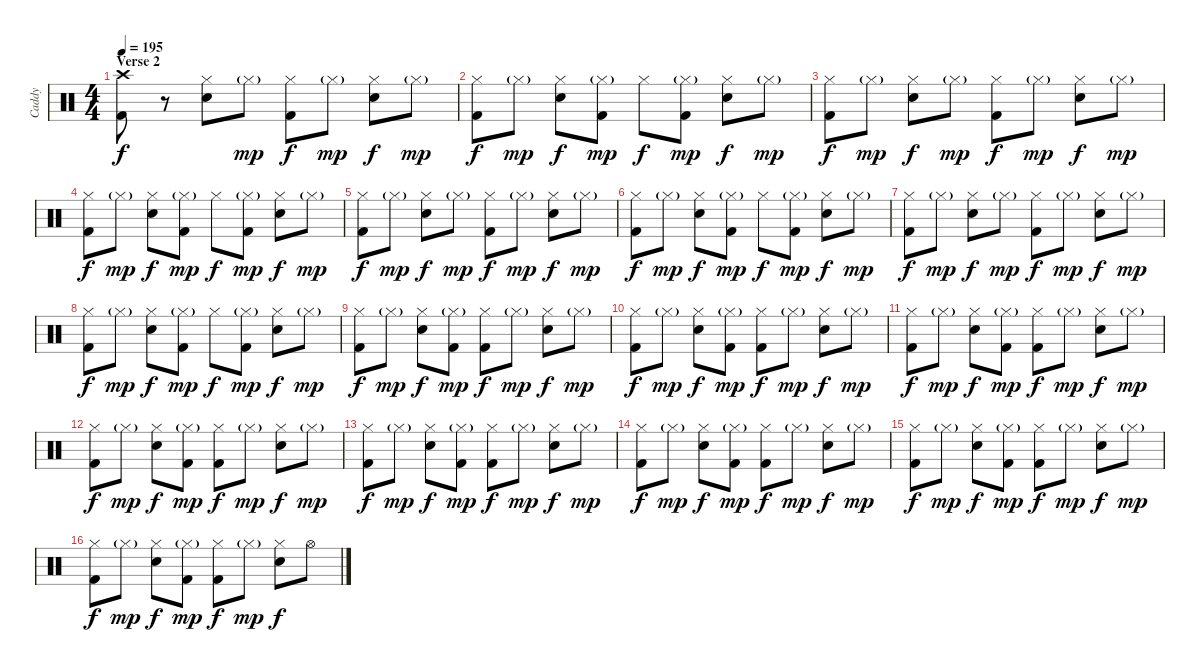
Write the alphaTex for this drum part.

\track ("Caddy" "Caddy") {instrument percussion}
\staff {score}
\articulation defaults
\ts (4 4)
\section ("" "Verse 2")
\tempo 195
\clef neutral
\ks c
("Crash high (hit)" "Kick (hit) 2").8{dy f} r.8 ("Hi-Hat (closed)" "Electric Snare (hit)").8 "Hi-Hat (closed)"{g}.8{dy mp} ("Hi-Hat (closed)" "Kick (hit) 2").8{dy f} "Hi-Hat (closed)"{g}.8{dy mp} ("Hi-Hat (closed)" "Electric Snare (hit)").8{dy f} "Hi-Hat (closed)"{g}.8{dy mp} |
("Hi-Hat (closed)" "Kick (hit) 2").8{dy f} "Hi-Hat (closed)"{g}.8{dy mp} ("Hi-Hat (closed)" "Electric Snare (hit)").8{dy f} ("Hi-Hat (closed)"{g} "Kick (hit) 2").8{dy mp} "Hi-Hat (closed)".8{dy f} ("Hi-Hat (closed)"{g} "Kick (hit) 2").8{dy mp} ("Hi-Hat (closed)" "Electric Snare (hit)").8{dy f} "Hi-Hat (closed)"{g}.8{dy mp} |
("Hi-Hat (closed)" "Kick (hit) 2").8{dy f} "Hi-Hat (closed)"{g}.8{dy mp} ("Hi-Hat (closed)" "Electric Snare (hit)").8{dy f} "Hi-Hat (closed)"{g}.8{dy mp} ("Hi-Hat (closed)" "Kick (hit) 2").8{dy f} "Hi-Hat (closed)"{g}.8{dy mp} ("Hi-Hat (closed)" "Electric Snare (hit)").8{dy f} "Hi-Hat (closed)"{g}.8{dy mp} |
("Hi-Hat (closed)" "Kick (hit) 2").8{dy f} "Hi-Hat (closed)"{g}.8{dy mp} ("Hi-Hat (closed)" "Electric Snare (hit)").8{dy f} ("Hi-Hat (closed)"{g} "Kick (hit) 2").8{dy mp} "Hi-Hat (closed)".8{dy f} ("Hi-Hat (closed)"{g} "Kick (hit) 2").8{dy mp} ("Hi-Hat (closed)" "Electric Snare (hit)").8{dy f} "Hi-Hat (closed)"{g}.8{dy mp} |
("Hi-Hat (closed)" "Kick (hit) 2").8{dy f} "Hi-Hat (closed)"{g}.8{dy mp} ("Hi-Hat (closed)" "Electric Snare (hit)").8{dy f} "Hi-Hat (closed)"{g}.8{dy mp} ("Hi-Hat (closed)" "Kick (hit) 2").8{dy f} "Hi-Hat (closed)"{g}.8{dy mp} ("Hi-Hat (closed)" "Electric Snare (hit)").8{dy f} "Hi-Hat (closed)"{g}.8{dy mp} |
("Hi-Hat (closed)" "Kick (hit) 2").8{dy f} "Hi-Hat (closed)"{g}.8{dy mp} ("Hi-Hat (closed)" "Electric Snare (hit)").8{dy f} ("Hi-Hat (closed)"{g} "Kick (hit) 2").8{dy mp} "Hi-Hat (closed)".8{dy f} ("Hi-Hat (closed)"{g} "Kick (hit) 2").8{dy mp} ("Hi-Hat (closed)" "Electric Snare (hit)").8{dy f} "Hi-Hat (closed)"{g}.8{dy mp} |
("Hi-Hat (closed)" "Kick (hit) 2").8{dy f} "Hi-Hat (closed)"{g}.8{dy mp} ("Hi-Hat (closed)" "Electric Snare (hit)").8{dy f} "Hi-Hat (closed)"{g}.8{dy mp} ("Hi-Hat (closed)" "Kick (hit) 2").8{dy f} "Hi-Hat (closed)"{g}.8{dy mp} ("Hi-Hat (closed)" "Electric Snare (hit)").8{dy f} "Hi-Hat (closed)"{g}.8{dy mp} |
("Hi-Hat (closed)" "Kick (hit) 2").8{dy f} "Hi-Hat (closed)"{g}.8{dy mp} ("Hi-Hat (closed)" "Electric Snare (hit)").8{dy f} ("Hi-Hat (closed)"{g} "Kick (hit) 2").8{dy mp} "Hi-Hat (closed)".8{dy f} ("Hi-Hat (closed)"{g} "Kick (hit) 2").8{dy mp} ("Hi-Hat (closed)" "Electric Snare (hit)").8{dy f} "Hi-Hat (closed)"{g}.8{dy mp} |
("Hi-Hat (closed)" "Kick (hit) 2").8{dy f} "Hi-Hat (closed)"{g}.8{dy mp} ("Hi-Hat (closed)" "Electric Snare (hit)").8{dy f} ("Hi-Hat (closed)"{g} "Kick (hit) 2").8{dy mp} ("Hi-Hat (closed)" "Kick (hit) 2").8{dy f} "Hi-Hat (closed)"{g}.8{dy mp} ("Hi-Hat (closed)" "Electric Snare (hit)").8{dy f} "Hi-Hat (closed)"{g}.8{dy mp} |
("Hi-Hat (closed)" "Kick (hit) 2").8{dy f} "Hi-Hat (closed)"{g}.8{dy mp} ("Hi-Hat (closed)" "Electric Snare (hit)").8{dy f} ("Hi-Hat (closed)"{g} "Kick (hit) 2").8{dy mp} ("Hi-Hat (closed)" "Kick (hit) 2").8{dy f} "Hi-Hat (closed)"{g}.8{dy mp} ("Hi-Hat (closed)" "Electric Snare (hit)").8{dy f} "Hi-Hat (closed)"{g}.8{dy mp} |
("Hi-Hat (closed)" "Kick (hit) 2").8{dy f} "Hi-Hat (closed)"{g}.8{dy mp} ("Hi-Hat (closed)" "Electric Snare (hit)").8{dy f} ("Hi-Hat (closed)"{g} "Kick (hit) 2").8{dy mp} ("Hi-Hat (closed)" "Kick (hit) 2").8{dy f} "Hi-Hat (closed)"{g}.8{dy mp} ("Hi-Hat (closed)" "Electric Snare (hit)").8{dy f} "Hi-Hat (closed)"{g}.8{dy mp} |
("Hi-Hat (closed)" "Kick (hit) 2").8{dy f} "Hi-Hat (closed)"{g}.8{dy mp} ("Hi-Hat (closed)" "Electric Snare (hit)").8{dy f} ("Hi-Hat (closed)"{g} "Kick (hit) 2").8{dy mp} ("Hi-Hat (closed)" "Kick (hit) 2").8{dy f} "Hi-Hat (closed)"{g}.8{dy mp} ("Hi-Hat (closed)" "Electric Snare (hit)").8{dy f} "Hi-Hat (closed)"{g}.8{dy mp} |
("Hi-Hat (closed)" "Kick (hit) 2").8{dy f} "Hi-Hat (closed)"{g}.8{dy mp} ("Hi-Hat (closed)" "Electric Snare (hit)").8{dy f} ("Hi-Hat (closed)"{g} "Kick (hit) 2").8{dy mp} ("Hi-Hat (closed)" "Kick (hit) 2").8{dy f} "Hi-Hat (closed)"{g}.8{dy mp} ("Hi-Hat (closed)" "Electric Snare (hit)").8{dy f} "Hi-Hat (closed)"{g}.8{dy mp} |
("Hi-Hat (closed)" "Kick (hit) 2").8{dy f} "Hi-Hat (closed)"{g}.8{dy mp} ("Hi-Hat (closed)" "Electric Snare (hit)").8{dy f} ("Hi-Hat (closed)"{g} "Kick (hit) 2").8{dy mp} ("Hi-Hat (closed)" "Kick (hit) 2").8{dy f} "Hi-Hat (closed)"{g}.8{dy mp} ("Hi-Hat (closed)" "Electric Snare (hit)").8{dy f} "Hi-Hat (closed)"{g}.8{dy mp} |
("Hi-Hat (closed)" "Kick (hit) 2").8{dy f} "Hi-Hat (closed)"{g}.8{dy mp} ("Hi-Hat (closed)" "Electric Snare (hit)").8{dy f} ("Hi-Hat (closed)"{g} "Kick (hit) 2").8{dy mp} ("Hi-Hat (closed)" "Kick (hit) 2").8{dy f} "Hi-Hat (closed)"{g}.8{dy mp} ("Hi-Hat (closed)" "Electric Snare (hit)").8{dy f} "Hi-Hat (closed)"{g}.8{dy mp} |
("Hi-Hat (closed)" "Kick (hit) 2").8{dy f} "Hi-Hat (closed)"{g}.8{dy mp} ("Hi-Hat (closed)" "Electric Snare (hit)").8{dy f} ("Hi-Hat (closed)"{g} "Kick (hit) 2").8{dy mp} ("Hi-Hat (closed)" "Kick (hit) 2").8{dy f} "Hi-Hat (closed)"{g}.8{dy mp} ("Hi-Hat (closed)" "Electric Snare (hit)").8{dy f} "Hi-Hat (open)".8
